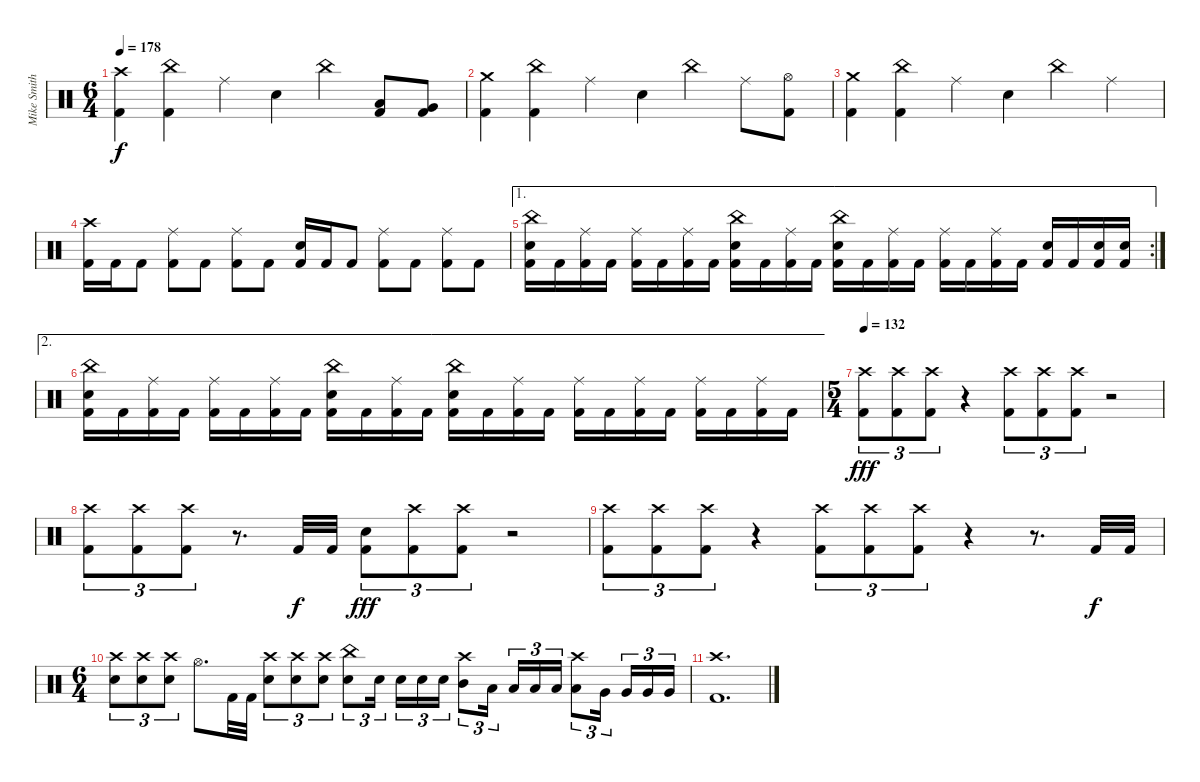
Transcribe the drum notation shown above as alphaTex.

\track ("Mike Smith" "Mike Smith") {instrument percussion}
\staff {score}
\articulation defaults
\ts (6 4)
\tempo 178
\clef neutral
\ks c
("Crash high (hit)" "Kick (hit) 2").4{dy f} ("China (hit)" "Kick (hit) 2").4 "Ride (middle)".4 "Electric Snare (hit)".4 "China (hit)".4 ("Low Tom (hit)" "Kick (hit) 2").8 ("Very Low Tom (hit)" "Kick (hit) 2").8 |
("Crash medium (hit)" "Kick (hit) 2").4 ("China (hit)" "Kick (hit) 2").4 "Ride (middle)".4 "Electric Snare (hit)".4 "China (hit)".4 "Ride (middle)".8 ("Hi-Hat (open)" "Kick (hit) 2").8 |
("Crash medium (hit)" "Kick (hit) 2").4 ("China (hit)" "Kick (hit) 2").4 "Ride (middle)".4 "Electric Snare (hit)".4 "China (hit)".4 "Ride (middle)".4 |
("Crash high (hit)" "Kick (hit) 2").16 "Kick (hit) 2".16 "Kick (hit) 2".8 ("Ride (middle)" "Kick (hit) 2").8 "Kick (hit) 2".8 ("Ride (middle)" "Kick (hit) 2").8 "Kick (hit) 2".8 ("Electric Snare (hit)" "Kick (hit) 2").16 "Kick (hit) 2".16 "Kick (hit) 2".8 ("Ride (middle)" "Kick (hit) 2").8 "Kick (hit) 2".8 ("Ride (middle)" "Kick (hit) 2").8 "Kick (hit) 2".8 |
\ae 1
\rc 2
("China (hit)" "Electric Snare (hit)" "Kick (hit) 2").16 "Kick (hit) 2".16 ("Ride (middle)" "Kick (hit) 2").16 "Kick (hit) 2".16 ("Ride (middle)" "Kick (hit) 2").16 "Kick (hit) 2".16 ("Ride (middle)" "Kick (hit) 2").16 "Kick (hit) 2".16 ("China (hit)" "Electric Snare (hit)" "Kick (hit) 2").16 "Kick (hit) 2".16 ("Ride (middle)" "Kick (hit) 2").16 "Kick (hit) 2".16 ("China (hit)" "Electric Snare (hit)" "Kick (hit) 2").16 "Kick (hit) 2".16 ("Ride (middle)" "Kick (hit) 2").16 "Kick (hit) 2".16 ("Ride (middle)" "Kick (hit) 2").16 "Kick (hit) 2".16 ("Ride (middle)" "Kick (hit) 2").16 "Kick (hit) 2".16 ("Electric Snare (hit)" "Kick (hit) 2").16 "Kick (hit) 2".16 ("Electric Snare (hit)" "Kick (hit) 2").16 ("Electric Snare (hit)" "Kick (hit) 2").16 |
\ae 2
("China (hit)" "Electric Snare (hit)" "Kick (hit) 2").16 "Kick (hit) 2".16 ("Ride (middle)" "Kick (hit) 2").16 "Kick (hit) 2".16 ("Ride (middle)" "Kick (hit) 2").16 "Kick (hit) 2".16 ("Ride (middle)" "Kick (hit) 2").16 "Kick (hit) 2".16 ("China (hit)" "Electric Snare (hit)" "Kick (hit) 2").16 "Kick (hit) 2".16 ("Ride (middle)" "Kick (hit) 2").16 "Kick (hit) 2".16 ("China (hit)" "Electric Snare (hit)" "Kick (hit) 2").16 "Kick (hit) 2".16 ("Ride (middle)" "Kick (hit) 2").16 "Kick (hit) 2".16 ("Ride (middle)" "Kick (hit) 2").16 "Kick (hit) 2".16 ("Ride (middle)" "Kick (hit) 2").16 "Kick (hit) 2".16 ("Ride (middle)" "Kick (hit) 2").16 "Kick (hit) 2".16 ("Ride (middle)" "Kick (hit) 2").16 "Kick (hit) 2".16 |
\ts (5 4)
\tempo 132
("Kick (hit) 2" "Crash high (hit)").8{tu (3 2) dy fff} ("Kick (hit) 2" "Crash high (hit)").8{tu (3 2)} ("Kick (hit) 2" "Crash high (hit)").8{tu (3 2)} r.4 ("Kick (hit) 2" "Crash high (hit)").8{tu (3 2)} ("Kick (hit) 2" "Crash high (hit)").8{tu (3 2)} ("Kick (hit) 2" "Crash high (hit)").8{tu (3 2)} r.2 |
("Kick (hit) 2" "Crash high (hit)").8{tu (3 2)} ("Kick (hit) 2" "Crash high (hit)").8{tu (3 2)} ("Kick (hit) 2" "Crash high (hit)").8{tu (3 2)} r.8{d} "Kick (hit) 2".32{dy f} "Kick (hit) 2".32 ("Kick (hit) 2" "Electric Snare (hit)").8{tu (3 2) dy fff} ("Kick (hit) 2" "Crash high (hit)").8{tu (3 2)} ("Kick (hit) 2" "Crash high (hit)").8{tu (3 2)} r.2 |
("Kick (hit) 2" "Crash high (hit)").8{tu (3 2)} ("Kick (hit) 2" "Crash high (hit)").8{tu (3 2)} ("Kick (hit) 2" "Crash high (hit)").8{tu (3 2)} r.4 ("Kick (hit) 2" "Crash high (hit)").8{tu (3 2)} ("Kick (hit) 2" "Crash high (hit)").8{tu (3 2)} ("Kick (hit) 2" "Crash high (hit)").8{tu (3 2)} r.4 r.8{d} "Kick (hit) 2".32{dy f} "Kick (hit) 2".32 |
\ts (6 4)
("Crash high (hit)" "Electric Snare (hit)").8{tu (3 2)} ("Crash high (hit)" "Electric Snare (hit)").8{tu (3 2)} ("Crash high (hit)" "Electric Snare (hit)").8{tu (3 2)} "Hi-Hat (open)".8{d} "Kick (hit) 2".32 "Kick (hit) 2".32 ("Crash high (hit)" "Electric Snare (hit)").8{tu (3 2)} ("Crash high (hit)" "Electric Snare (hit)").8{tu (3 2)} ("Crash high (hit)" "Electric Snare (hit)").8{tu (3 2)} ("China (hit)" "Electric Snare (hit)").8{tu (3 2)} "Electric Snare (hit)".16{tu (3 2) beam splitsecondary} "Electric Snare (hit)".16{tu (3 2)} "Electric Snare (hit)".16{tu (3 2)} "Electric Snare (hit)".16{tu (3 2)} ("Crash high (hit)" "Mid Tom (hit)").8{tu (3 2)} "Low Tom (hit)".16{tu (3 2) beam splitsecondary} "Low Tom (hit)".16{tu (3 2)} "Low Tom (hit)".16{tu (3 2)} "Low Tom (hit)".16{tu (3 2)} ("Crash high (hit)" "Low Tom (hit)").8{tu (3 2)} "Very Low Tom (hit)".16{tu (3 2) beam splitsecondary} "Very Low Tom (hit)".16{tu (3 2)} "Very Low Tom (hit)".16{tu (3 2)} "Very Low Tom (hit)".16{tu (3 2)} |
("Crash high (hit)" "Kick (hit) 2").1{d}
